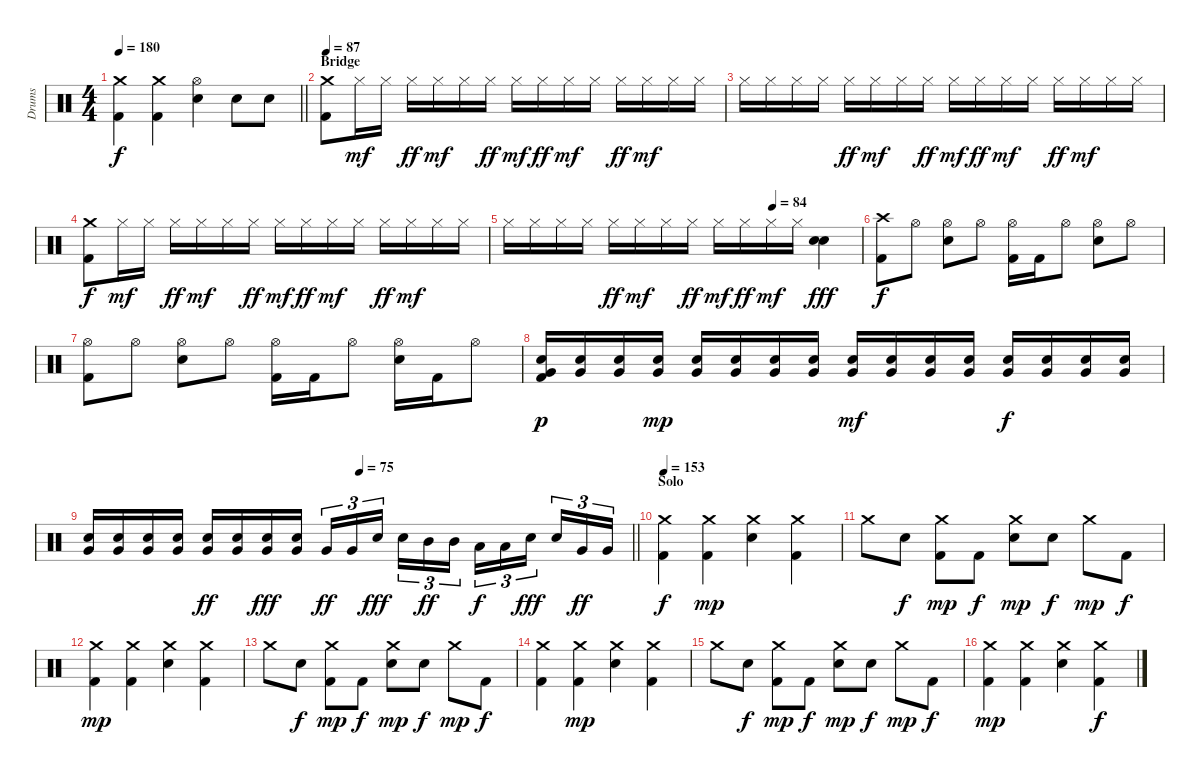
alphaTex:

\track ("Drums" "Drums") {instrument percussion}
\staff {score}
\articulation defaults
\ts (4 4)
\tempo 180
\clef neutral
\barLineRight lightlight
\ks c
("Crash medium (hit)" "Kick (hit) 2").4{dy f} ("Crash medium (hit)" "Kick (hit) 2").4 ("Hi-Hat (open)" "Snare (hit) 2").4 "Snare (hit) 2".8 "Snare (hit) 2".8 |
\section ("" "Bridge")
\tempo 87
("Crash medium (hit)" "Kick (hit) 2").8 "Hi-Hat (closed)".16{dy mf} "Hi-Hat (closed)".16 "Hi-Hat (closed)".16{dy ff} "Hi-Hat (closed)".16{dy mf} "Hi-Hat (closed)".16 "Hi-Hat (closed)".16{dy ff} "Hi-Hat (closed)".16{dy mf} "Hi-Hat (closed)".16{dy ff} "Hi-Hat (closed)".16{dy mf} "Hi-Hat (closed)".16 "Hi-Hat (closed)".16{dy ff} "Hi-Hat (closed)".16{dy mf} "Hi-Hat (closed)".16 "Hi-Hat (closed)".16 |
"Hi-Hat (closed)".16 "Hi-Hat (closed)".16 "Hi-Hat (closed)".16 "Hi-Hat (closed)".16 "Hi-Hat (closed)".16{dy ff} "Hi-Hat (closed)".16{dy mf} "Hi-Hat (closed)".16 "Hi-Hat (closed)".16{dy ff} "Hi-Hat (closed)".16{dy mf} "Hi-Hat (closed)".16{dy ff} "Hi-Hat (closed)".16{dy mf} "Hi-Hat (closed)".16 "Hi-Hat (closed)".16{dy ff} "Hi-Hat (closed)".16{dy mf} "Hi-Hat (closed)".16 "Hi-Hat (closed)".16 |
("Crash medium (hit)" "Kick (hit) 2").8{dy f} "Hi-Hat (closed)".16{dy mf} "Hi-Hat (closed)".16 "Hi-Hat (closed)".16{dy ff} "Hi-Hat (closed)".16{dy mf} "Hi-Hat (closed)".16 "Hi-Hat (closed)".16{dy ff} "Hi-Hat (closed)".16{dy mf} "Hi-Hat (closed)".16{dy ff} "Hi-Hat (closed)".16{dy mf} "Hi-Hat (closed)".16 "Hi-Hat (closed)".16{dy ff} "Hi-Hat (closed)".16{dy mf} "Hi-Hat (closed)".16 "Hi-Hat (closed)".16 |
\tempo (84 0.75)
"Hi-Hat (closed)".16 "Hi-Hat (closed)".16 "Hi-Hat (closed)".16 "Hi-Hat (closed)".16 "Hi-Hat (closed)".16{dy ff} "Hi-Hat (closed)".16{dy mf} "Hi-Hat (closed)".16 "Hi-Hat (closed)".16{dy ff} "Hi-Hat (closed)".16{dy mf} "Hi-Hat (closed)".16{dy ff} "Hi-Hat (closed)".16{dy mf} "Hi-Hat (closed)".16 ("Snare (hit) 2" "Snare (hit) 2").4{bd 120 dy fff} |
("Crash high (hit)" "Kick (hit) 2").8{dy f} "Hi-Hat (open)".8 ("Hi-Hat (open)" "Snare (hit) 2").8 "Hi-Hat (open)".8 ("Hi-Hat (open)" "Kick (hit) 2").16 "Kick (hit) 2".16 "Hi-Hat (open)".8 ("Hi-Hat (open)" "Snare (hit) 2").8 "Hi-Hat (open)".8 |
("Hi-Hat (open)" "Kick (hit) 2").8 "Hi-Hat (open)".8 ("Hi-Hat (open)" "Snare (hit) 2").8 "Hi-Hat (open)".8 ("Hi-Hat (open)" "Kick (hit) 2").16 "Kick (hit) 2".16 "Hi-Hat (open)".8 ("Hi-Hat (open)" "Snare (hit) 2").16 "Kick (hit) 2".16 "Hi-Hat (open)".8 |
("Snare (hit) 2" "Very Low Tom (hit)" "Kick (hit) 2").16{dy p} ("Snare (hit) 2" "Very Low Tom (hit)").16 ("Snare (hit) 2" "Very Low Tom (hit)").16 ("Snare (hit) 2" "Very Low Tom (hit)").16{dy mp} ("Snare (hit) 2" "Very Low Tom (hit)").16 ("Snare (hit) 2" "Very Low Tom (hit)").16 ("Snare (hit) 2" "Very Low Tom (hit)").16 ("Snare (hit) 2" "Very Low Tom (hit)").16 ("Snare (hit) 2" "Very Low Tom (hit)").16{dy mf} ("Snare (hit) 2" "Very Low Tom (hit)").16 ("Snare (hit) 2" "Very Low Tom (hit)").16 ("Snare (hit) 2" "Very Low Tom (hit)").16 ("Snare (hit) 2" "Very Low Tom (hit)").16{dy f} ("Snare (hit) 2" "Very Low Tom (hit)").16 ("Snare (hit) 2" "Very Low Tom (hit)").16 ("Snare (hit) 2" "Very Low Tom (hit)").16 |
\tempo (75 0.5)
\barLineRight lightlight
("Snare (hit) 2" "Very Low Tom (hit)").16 ("Snare (hit) 2" "Very Low Tom (hit)").16 ("Snare (hit) 2" "Very Low Tom (hit)").16 ("Snare (hit) 2" "Very Low Tom (hit)").16 ("Snare (hit) 2" "Very Low Tom (hit)").16{dy ff} ("Snare (hit) 2" "Very Low Tom (hit)").16 ("Snare (hit) 2" "Very Low Tom (hit)").16{dy fff} ("Snare (hit) 2" "Very Low Tom (hit)").16 "Very Low Tom (hit)".16{tu (3 2) dy ff} "Very Low Tom (hit)".16{tu (3 2)} "Snare (hit) 2".16{tu (3 2) dy fff beam splitsecondary} "Snare (hit) 2".16{tu (3 2)} "Mid Tom (hit)".16{tu (3 2) dy ff} "Mid Tom (hit)".16{tu (3 2)} "Low Tom (hit)".16{tu (3 2) dy f} "Low Tom (hit)".16{tu (3 2)} "Snare (hit) 2".16{tu (3 2) dy fff beam splitsecondary} "Snare (hit) 2".16{tu (3 2)} "Very Low Tom (hit)".16{tu (3 2) dy ff} "Very Low Tom (hit)".16{tu (3 2)} |
\section ("" "Solo")
\tempo 153
("Crash medium (hit)" "Kick (hit) 2").4{dy f} ("Crash medium (hit)" "Kick (hit) 2").4{dy mp} ("Crash medium (hit)" "Snare (hit) 2").4 ("Crash medium (hit)" "Kick (hit) 2").4 |
"Crash medium (hit)".8 "Snare (hit) 2".8{dy f} ("Crash medium (hit)" "Kick (hit) 2").8{dy mp} "Kick (hit) 2".8{dy f} ("Crash medium (hit)" "Snare (hit) 2").8{dy mp} "Snare (hit) 2".8{dy f} "Crash medium (hit)".8{dy mp} "Kick (hit) 2".8{dy f} |
("Crash medium (hit)" "Kick (hit) 2").4{dy mp} ("Crash medium (hit)" "Kick (hit) 2").4 ("Crash medium (hit)" "Snare (hit) 2").4 ("Crash medium (hit)" "Kick (hit) 2").4 |
"Crash medium (hit)".8 "Snare (hit) 2".8{dy f} ("Crash medium (hit)" "Kick (hit) 2").8{dy mp} "Kick (hit) 2".8{dy f} ("Crash medium (hit)" "Snare (hit) 2").8{dy mp} "Snare (hit) 2".8{dy f} "Crash medium (hit)".8{dy mp} "Kick (hit) 2".8{dy f} |
("Crash medium (hit)" "Kick (hit) 2").4 ("Crash medium (hit)" "Kick (hit) 2").4{dy mp} ("Crash medium (hit)" "Snare (hit) 2").4 ("Crash medium (hit)" "Kick (hit) 2").4 |
"Crash medium (hit)".8 "Snare (hit) 2".8{dy f} ("Crash medium (hit)" "Kick (hit) 2").8{dy mp} "Kick (hit) 2".8{dy f} ("Crash medium (hit)" "Snare (hit) 2").8{dy mp} "Snare (hit) 2".8{dy f} "Crash medium (hit)".8{dy mp} "Kick (hit) 2".8{dy f} |
("Crash medium (hit)" "Kick (hit) 2").4{dy mp} ("Crash medium (hit)" "Kick (hit) 2").4 ("Crash medium (hit)" "Snare (hit) 2").4 ("Crash medium (hit)" "Kick (hit) 2").4{dy f}
